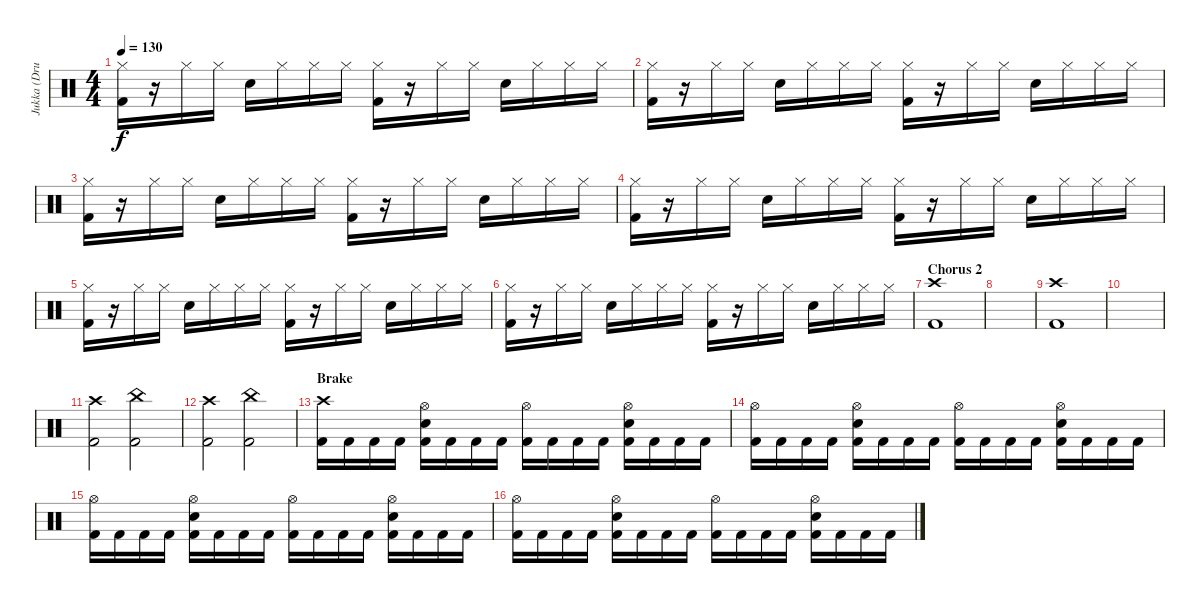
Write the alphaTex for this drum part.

\track ("Jukka (Drums)" "Jukka (Dru") {instrument percussion}
\staff {score}
\articulation defaults
\ts (4 4)
\tempo 130
\clef neutral
\ks c
("Hi-Hat (closed)" "Kick (hit) 2").16{dy f} r.16 "Hi-Hat (closed)".16 "Hi-Hat (closed)".16 "Electric Snare (hit)".16 "Hi-Hat (closed)".16 "Hi-Hat (closed)".16 "Hi-Hat (closed)".16 ("Hi-Hat (closed)" "Kick (hit) 2").16 r.16 "Hi-Hat (closed)".16 "Hi-Hat (closed)".16 "Electric Snare (hit)".16 "Hi-Hat (closed)".16 "Hi-Hat (closed)".16 "Hi-Hat (closed)".16 |
("Hi-Hat (closed)" "Kick (hit) 2").16 r.16 "Hi-Hat (closed)".16 "Hi-Hat (closed)".16 "Electric Snare (hit)".16 "Hi-Hat (closed)".16 "Hi-Hat (closed)".16 "Hi-Hat (closed)".16 ("Hi-Hat (closed)" "Kick (hit) 2").16 r.16 "Hi-Hat (closed)".16 "Hi-Hat (closed)".16 "Electric Snare (hit)".16 "Hi-Hat (closed)".16 "Hi-Hat (closed)".16 "Hi-Hat (closed)".16 |
("Hi-Hat (closed)" "Kick (hit) 2").16 r.16 "Hi-Hat (closed)".16 "Hi-Hat (closed)".16 "Electric Snare (hit)".16 "Hi-Hat (closed)".16 "Hi-Hat (closed)".16 "Hi-Hat (closed)".16 ("Hi-Hat (closed)" "Kick (hit) 2").16 r.16 "Hi-Hat (closed)".16 "Hi-Hat (closed)".16 "Electric Snare (hit)".16 "Hi-Hat (closed)".16 "Hi-Hat (closed)".16 "Hi-Hat (closed)".16 |
("Hi-Hat (closed)" "Kick (hit) 2").16 r.16 "Hi-Hat (closed)".16 "Hi-Hat (closed)".16 "Electric Snare (hit)".16 "Hi-Hat (closed)".16 "Hi-Hat (closed)".16 "Hi-Hat (closed)".16 ("Hi-Hat (closed)" "Kick (hit) 2").16 r.16 "Hi-Hat (closed)".16 "Hi-Hat (closed)".16 "Electric Snare (hit)".16 "Hi-Hat (closed)".16 "Hi-Hat (closed)".16 "Hi-Hat (closed)".16 |
("Hi-Hat (closed)" "Kick (hit) 2").16 r.16 "Hi-Hat (closed)".16 "Hi-Hat (closed)".16 "Electric Snare (hit)".16 "Hi-Hat (closed)".16 "Hi-Hat (closed)".16 "Hi-Hat (closed)".16 ("Hi-Hat (closed)" "Kick (hit) 2").16 r.16 "Hi-Hat (closed)".16 "Hi-Hat (closed)".16 "Electric Snare (hit)".16 "Hi-Hat (closed)".16 "Hi-Hat (closed)".16 "Hi-Hat (closed)".16 |
("Hi-Hat (closed)" "Kick (hit) 2").16 r.16 "Hi-Hat (closed)".16 "Hi-Hat (closed)".16 "Electric Snare (hit)".16 "Hi-Hat (closed)".16 "Hi-Hat (closed)".16 "Hi-Hat (closed)".16 ("Hi-Hat (closed)" "Kick (hit) 2").16 r.16 "Hi-Hat (closed)".16 "Hi-Hat (closed)".16 "Electric Snare (hit)".16 "Hi-Hat (closed)".16 "Hi-Hat (closed)".16 "Hi-Hat (closed)".16 |
\section ("" "Chorus 2")
("Crash high (hit)" "Kick (hit) 2").1 |
|
("Crash high (hit)" "Kick (hit) 2").1 |
|
("Crash high (hit)" "Kick (hit) 2").2 ("China (hit)" "Kick (hit) 2").2 |
("Crash high (hit)" "Kick (hit) 2").2 ("China (hit)" "Kick (hit) 2").2 |
\section ("" "Brake")
("Crash high (hit)" "Kick (hit) 2").16 "Kick (hit) 2".16 "Kick (hit) 2".16 "Kick (hit) 2".16 ("Hi-Hat (open)" "Kick (hit) 2" "Electric Snare (hit)").16 "Kick (hit) 2".16 "Kick (hit) 2".16 "Kick (hit) 2".16 ("Hi-Hat (open)" "Kick (hit) 2").16 "Kick (hit) 2".16 "Kick (hit) 2".16 "Kick (hit) 2".16 ("Hi-Hat (open)" "Kick (hit) 2" "Electric Snare (hit)").16 "Kick (hit) 2".16 "Kick (hit) 2".16 "Kick (hit) 2".16 |
("Hi-Hat (open)" "Kick (hit) 2").16 "Kick (hit) 2".16 "Kick (hit) 2".16 "Kick (hit) 2".16 ("Hi-Hat (open)" "Kick (hit) 2" "Electric Snare (hit)").16 "Kick (hit) 2".16 "Kick (hit) 2".16 "Kick (hit) 2".16 ("Hi-Hat (open)" "Kick (hit) 2").16 "Kick (hit) 2".16 "Kick (hit) 2".16 "Kick (hit) 2".16 ("Hi-Hat (open)" "Kick (hit) 2" "Electric Snare (hit)").16 "Kick (hit) 2".16 "Kick (hit) 2".16 "Kick (hit) 2".16 |
("Hi-Hat (open)" "Kick (hit) 2").16 "Kick (hit) 2".16 "Kick (hit) 2".16 "Kick (hit) 2".16 ("Hi-Hat (open)" "Kick (hit) 2" "Electric Snare (hit)").16 "Kick (hit) 2".16 "Kick (hit) 2".16 "Kick (hit) 2".16 ("Hi-Hat (open)" "Kick (hit) 2").16 "Kick (hit) 2".16 "Kick (hit) 2".16 "Kick (hit) 2".16 ("Hi-Hat (open)" "Kick (hit) 2" "Electric Snare (hit)").16 "Kick (hit) 2".16 "Kick (hit) 2".16 "Kick (hit) 2".16 |
("Hi-Hat (open)" "Kick (hit) 2").16 "Kick (hit) 2".16 "Kick (hit) 2".16 "Kick (hit) 2".16 ("Hi-Hat (open)" "Kick (hit) 2" "Electric Snare (hit)").16 "Kick (hit) 2".16 "Kick (hit) 2".16 "Kick (hit) 2".16 ("Hi-Hat (open)" "Kick (hit) 2").16 "Kick (hit) 2".16 "Kick (hit) 2".16 "Kick (hit) 2".16 ("Hi-Hat (open)" "Kick (hit) 2" "Electric Snare (hit)").16 "Kick (hit) 2".16 "Kick (hit) 2".16 "Kick (hit) 2".16
